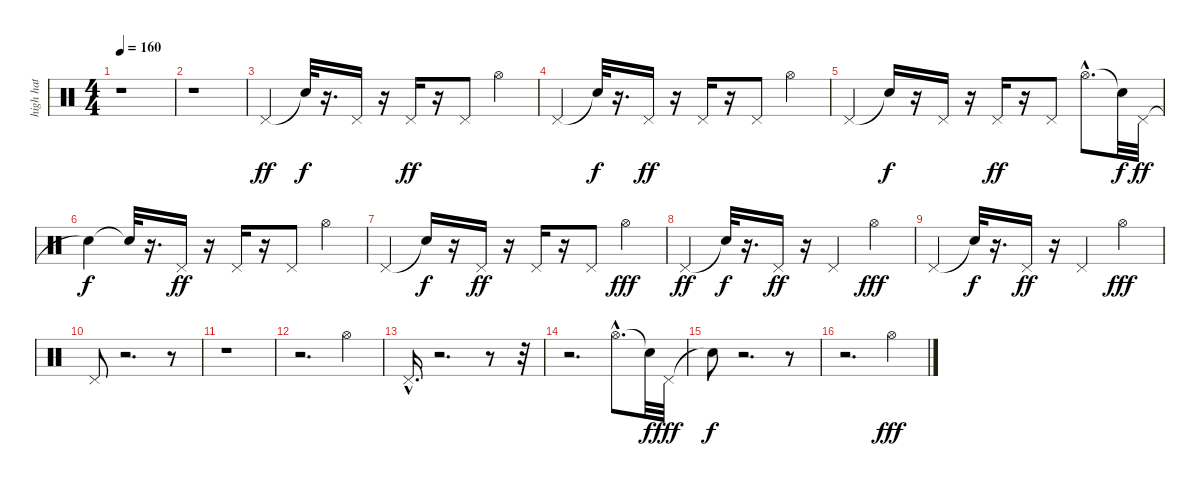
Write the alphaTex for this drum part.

\track ("high hat" "high hat") {instrument percussion}
\staff {score}
\articulation defaults
\ts (4 4)
\tempo 160
\clef neutral
\ks c
r.1{dy f} |
r.1 |
"Pedal Hi-Hat (hit)".4{dy ff} "Snare (hit)"{t}.32{dy f} r.16{d} "Pedal Hi-Hat (hit)".16 r.16 "Pedal Hi-Hat (hit)".16{dy ff} r.16 "Pedal Hi-Hat (hit)".8 "Hi-Hat (open)".4 |
"Pedal Hi-Hat (hit)".4 "Snare (hit)"{t}.32{dy f} r.16{d} "Pedal Hi-Hat (hit)".16{dy ff} r.16 "Pedal Hi-Hat (hit)".16 r.16 "Pedal Hi-Hat (hit)".8 "Hi-Hat (open)".4 |
"Pedal Hi-Hat (hit)".4 "Snare (hit)"{t}.16{dy f} r.16 "Pedal Hi-Hat (hit)".16 r.16 "Pedal Hi-Hat (hit)".16{dy ff} r.16 "Pedal Hi-Hat (hit)".8 "Hi-Hat (open)"{hac}.8{d} "Snare (hit)"{t}.32{dy f} "Pedal Hi-Hat (hit)".32{dy ff} |
"Snare (hit)"{t}.4{dy f} "Snare (hit)"{t}.32 r.16{d} "Pedal Hi-Hat (hit)".16{dy ff} r.16 "Pedal Hi-Hat (hit)".16 r.16 "Pedal Hi-Hat (hit)".8 "Hi-Hat (open)".4 |
"Pedal Hi-Hat (hit)".4 "Snare (hit)"{t}.16{dy f} r.16 "Pedal Hi-Hat (hit)".16{dy ff} r.16 "Pedal Hi-Hat (hit)".16 r.16 "Pedal Hi-Hat (hit)".8 "Hi-Hat (open)".4{dy fff} |
"Pedal Hi-Hat (hit)".4{dy ff} "Snare (hit)"{t}.32{dy f} r.16{d} "Pedal Hi-Hat (hit)".16{dy ff} r.16 "Pedal Hi-Hat (hit)".4 "Hi-Hat (open)".4{dy fff} |
"Pedal Hi-Hat (hit)".4 "Snare (hit)"{t}.32{dy f} r.16{d} "Pedal Hi-Hat (hit)".16{dy ff} r.16 "Pedal Hi-Hat (hit)".4 "Hi-Hat (open)".4{dy fff} |
"Pedal Hi-Hat (hit)".8 r.2{d} r.8 |
r.1 |
r.2{d} "Hi-Hat (open)".4 |
"Pedal Hi-Hat (hit)"{hac}.16{d} r.2{d} r.8 r.32 |
r.2{d} "Hi-Hat (open)"{hac}.8{d} "Snare (hit)"{t}.32{dy f} "Pedal Hi-Hat (hit)".32{dy fff} |
"Snare (hit)"{t}.8{dy f} r.2{d} r.8 |
r.2{d} "Hi-Hat (open)".4{dy fff}
